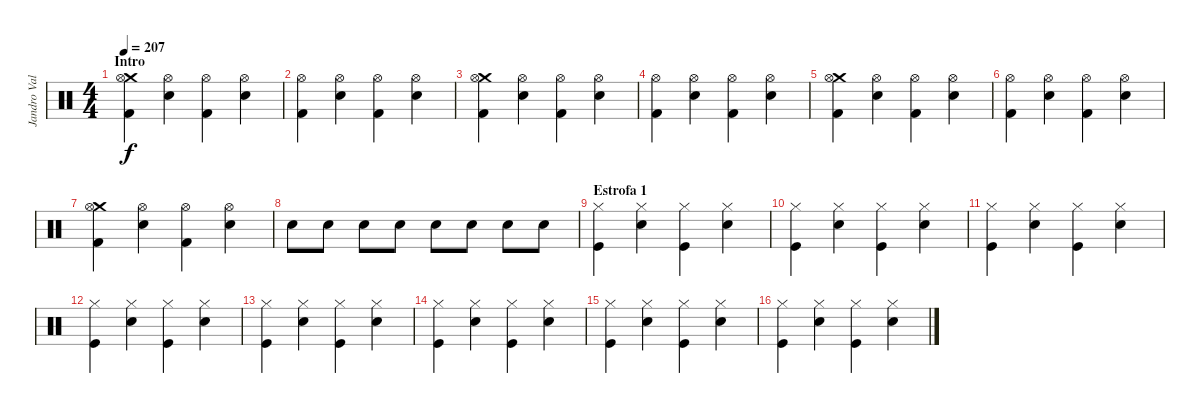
\track ("Jandro Valázquez" "Jandro Val") {instrument percussion}
\staff {score}
\articulation defaults
\ts (4 4)
\section ("" "Intro")
\tempo 207
\clef neutral
\ks c
("Crash medium (hit)" "Hi-Hat (open)" "Kick (hit) 2").4{dy f} ("Hi-Hat (open)" "Snare (hit) 2").4 ("Hi-Hat (open)" "Kick (hit) 2").4 ("Hi-Hat (open)" "Snare (hit) 2").4 |
("Hi-Hat (open)" "Kick (hit) 2").4 ("Hi-Hat (open)" "Snare (hit) 2").4 ("Hi-Hat (open)" "Kick (hit) 2").4 ("Hi-Hat (open)" "Snare (hit) 2").4 |
("Crash medium (hit)" "Hi-Hat (open)" "Kick (hit) 2").4 ("Hi-Hat (open)" "Snare (hit) 2").4 ("Hi-Hat (open)" "Kick (hit) 2").4 ("Hi-Hat (open)" "Snare (hit) 2").4 |
("Hi-Hat (open)" "Kick (hit) 2").4 ("Hi-Hat (open)" "Snare (hit) 2").4 ("Hi-Hat (open)" "Kick (hit) 2").4 ("Hi-Hat (open)" "Snare (hit) 2").4 |
("Crash medium (hit)" "Hi-Hat (open)" "Kick (hit) 2").4 ("Hi-Hat (open)" "Snare (hit) 2").4 ("Hi-Hat (open)" "Kick (hit) 2").4 ("Hi-Hat (open)" "Snare (hit) 2").4 |
("Hi-Hat (open)" "Kick (hit) 2").4 ("Hi-Hat (open)" "Snare (hit) 2").4 ("Hi-Hat (open)" "Kick (hit) 2").4 ("Hi-Hat (open)" "Snare (hit) 2").4 |
("Crash medium (hit)" "Hi-Hat (open)" "Kick (hit) 2").4 ("Hi-Hat (open)" "Snare (hit) 2").4 ("Hi-Hat (open)" "Kick (hit) 2").4 ("Hi-Hat (open)" "Snare (hit) 2").4 |
"Electric Snare (hit)".8 "Electric Snare (hit)".8 "Electric Snare (hit)".8 "Electric Snare (hit)".8 "Electric Snare (hit)".8 "Electric Snare (hit)".8 "Electric Snare (hit)".8 "Electric Snare (hit)".8 |
\section ("" "Estrofa 1")
("Hi-Hat (closed)" "Kick (hit)").4 ("Hi-Hat (closed)" "Snare (hit) 2").4 ("Hi-Hat (closed)" "Kick (hit)").4 ("Hi-Hat (closed)" "Snare (hit) 2").4 |
("Hi-Hat (closed)" "Kick (hit)").4 ("Hi-Hat (closed)" "Snare (hit) 2").4 ("Hi-Hat (closed)" "Kick (hit)").4 ("Hi-Hat (closed)" "Snare (hit) 2").4 |
("Hi-Hat (closed)" "Kick (hit)").4 ("Hi-Hat (closed)" "Snare (hit) 2").4 ("Hi-Hat (closed)" "Kick (hit)").4 ("Hi-Hat (closed)" "Snare (hit) 2").4 |
("Hi-Hat (closed)" "Kick (hit)").4 ("Hi-Hat (closed)" "Snare (hit) 2").4 ("Hi-Hat (closed)" "Kick (hit)").4 ("Hi-Hat (closed)" "Snare (hit) 2").4 |
("Hi-Hat (closed)" "Kick (hit)").4 ("Hi-Hat (closed)" "Snare (hit) 2").4 ("Hi-Hat (closed)" "Kick (hit)").4 ("Hi-Hat (closed)" "Snare (hit) 2").4 |
("Hi-Hat (closed)" "Kick (hit)").4 ("Hi-Hat (closed)" "Snare (hit) 2").4 ("Hi-Hat (closed)" "Kick (hit)").4 ("Hi-Hat (closed)" "Snare (hit) 2").4 |
("Hi-Hat (closed)" "Kick (hit)").4 ("Hi-Hat (closed)" "Snare (hit) 2").4 ("Hi-Hat (closed)" "Kick (hit)").4 ("Hi-Hat (closed)" "Snare (hit) 2").4 |
("Hi-Hat (closed)" "Kick (hit)").4 ("Hi-Hat (closed)" "Snare (hit) 2").4 ("Hi-Hat (closed)" "Kick (hit)").4 ("Hi-Hat (closed)" "Snare (hit) 2").4
